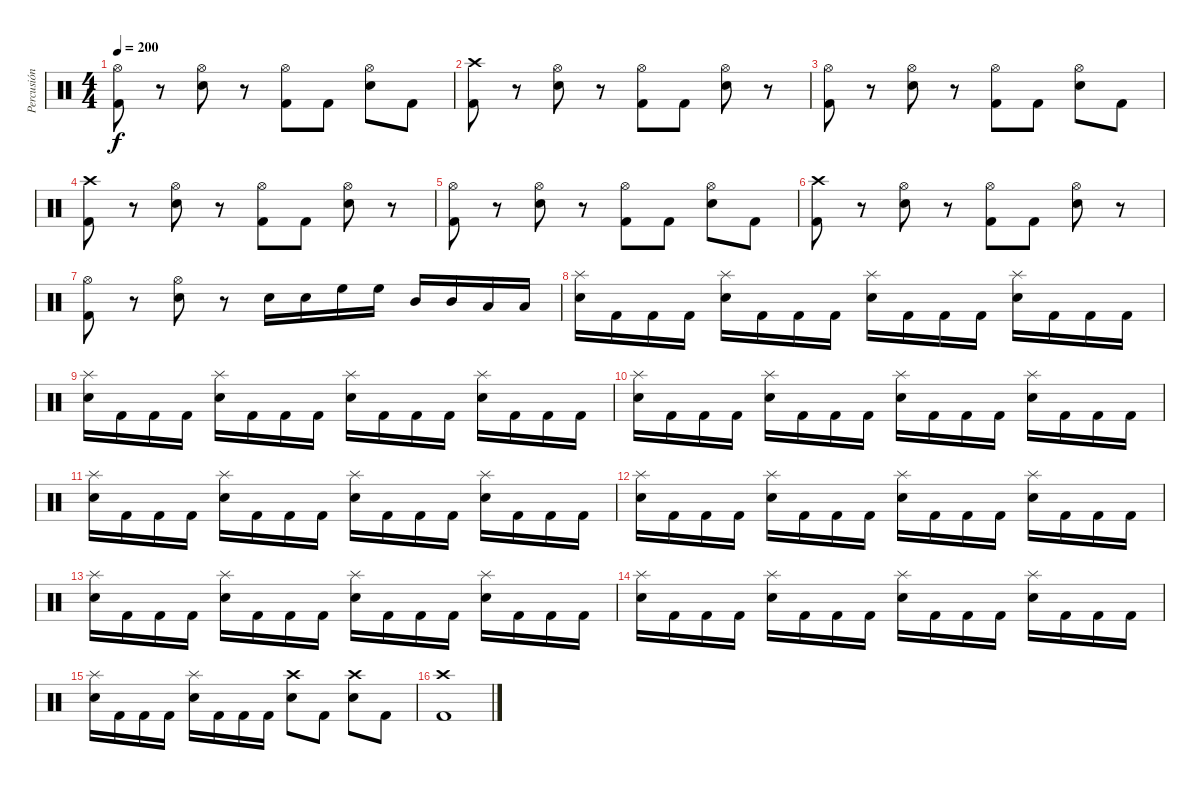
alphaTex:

\track ("Percusión" "Percusión") {instrument percussion}
\staff {score}
\articulation defaults
\ts (4 4)
\tempo 200
\clef neutral
\ks c
("Hi-Hat (open)" "Kick (hit) 2").8{dy f} r.8 ("Hi-Hat (open)" "Electric Snare (hit)").8 r.8 ("Hi-Hat (open)" "Kick (hit) 2").8 "Kick (hit) 2".8 ("Hi-Hat (open)" "Electric Snare (hit)").8 "Kick (hit) 2".8 |
("Crash high (hit)" "Kick (hit) 2").8 r.8 ("Hi-Hat (open)" "Electric Snare (hit)").8 r.8 ("Hi-Hat (open)" "Kick (hit) 2").8 "Kick (hit) 2".8 ("Hi-Hat (open)" "Electric Snare (hit)").8 r.8 |
("Hi-Hat (open)" "Kick (hit) 2").8 r.8 ("Hi-Hat (open)" "Electric Snare (hit)").8 r.8 ("Hi-Hat (open)" "Kick (hit) 2").8 "Kick (hit) 2".8 ("Hi-Hat (open)" "Electric Snare (hit)").8 "Kick (hit) 2".8 |
("Crash high (hit)" "Kick (hit) 2").8 r.8 ("Hi-Hat (open)" "Electric Snare (hit)").8 r.8 ("Hi-Hat (open)" "Kick (hit) 2").8 "Kick (hit) 2".8 ("Hi-Hat (open)" "Electric Snare (hit)").8 r.8 |
("Hi-Hat (open)" "Kick (hit) 2").8 r.8 ("Hi-Hat (open)" "Electric Snare (hit)").8 r.8 ("Hi-Hat (open)" "Kick (hit) 2").8 "Kick (hit) 2".8 ("Hi-Hat (open)" "Electric Snare (hit)").8 "Kick (hit) 2".8 |
("Crash high (hit)" "Kick (hit) 2").8 r.8 ("Hi-Hat (open)" "Electric Snare (hit)").8 r.8 ("Hi-Hat (open)" "Kick (hit) 2").8 "Kick (hit) 2".8 ("Hi-Hat (open)" "Electric Snare (hit)").8 r.8 |
("Hi-Hat (open)" "Kick (hit) 2").8 r.8 ("Hi-Hat (open)" "Electric Snare (hit)").8 r.8 "Electric Snare (hit)".16 "Electric Snare (hit)".16 "High Floor Tom (hit)".16 "High Floor Tom (hit)".16 "Mid Tom (hit)".16 "Mid Tom (hit)".16 "Low Tom (hit)".16 "Low Tom (hit)".16 |
("Splash (hit)" "Electric Snare (hit)").16 "Kick (hit) 2".16 "Kick (hit) 2".16 "Kick (hit) 2".16 ("Splash (hit)" "Electric Snare (hit)").16 "Kick (hit) 2".16 "Kick (hit) 2".16 "Kick (hit) 2".16 ("Splash (hit)" "Electric Snare (hit)").16 "Kick (hit) 2".16 "Kick (hit) 2".16 "Kick (hit) 2".16 ("Splash (hit)" "Electric Snare (hit)").16 "Kick (hit) 2".16 "Kick (hit) 2".16 "Kick (hit) 2".16 |
("Splash (hit)" "Electric Snare (hit)").16 "Kick (hit) 2".16 "Kick (hit) 2".16 "Kick (hit) 2".16 ("Splash (hit)" "Electric Snare (hit)").16 "Kick (hit) 2".16 "Kick (hit) 2".16 "Kick (hit) 2".16 ("Splash (hit)" "Electric Snare (hit)").16 "Kick (hit) 2".16 "Kick (hit) 2".16 "Kick (hit) 2".16 ("Splash (hit)" "Electric Snare (hit)").16 "Kick (hit) 2".16 "Kick (hit) 2".16 "Kick (hit) 2".16 |
("Splash (hit)" "Electric Snare (hit)").16 "Kick (hit) 2".16 "Kick (hit) 2".16 "Kick (hit) 2".16 ("Splash (hit)" "Electric Snare (hit)").16 "Kick (hit) 2".16 "Kick (hit) 2".16 "Kick (hit) 2".16 ("Splash (hit)" "Electric Snare (hit)").16 "Kick (hit) 2".16 "Kick (hit) 2".16 "Kick (hit) 2".16 ("Splash (hit)" "Electric Snare (hit)").16 "Kick (hit) 2".16 "Kick (hit) 2".16 "Kick (hit) 2".16 |
("Splash (hit)" "Electric Snare (hit)").16 "Kick (hit) 2".16 "Kick (hit) 2".16 "Kick (hit) 2".16 ("Splash (hit)" "Electric Snare (hit)").16 "Kick (hit) 2".16 "Kick (hit) 2".16 "Kick (hit) 2".16 ("Splash (hit)" "Electric Snare (hit)").16 "Kick (hit) 2".16 "Kick (hit) 2".16 "Kick (hit) 2".16 ("Splash (hit)" "Electric Snare (hit)").16 "Kick (hit) 2".16 "Kick (hit) 2".16 "Kick (hit) 2".16 |
("Splash (hit)" "Electric Snare (hit)").16 "Kick (hit) 2".16 "Kick (hit) 2".16 "Kick (hit) 2".16 ("Splash (hit)" "Electric Snare (hit)").16 "Kick (hit) 2".16 "Kick (hit) 2".16 "Kick (hit) 2".16 ("Splash (hit)" "Electric Snare (hit)").16 "Kick (hit) 2".16 "Kick (hit) 2".16 "Kick (hit) 2".16 ("Splash (hit)" "Electric Snare (hit)").16 "Kick (hit) 2".16 "Kick (hit) 2".16 "Kick (hit) 2".16 |
("Splash (hit)" "Electric Snare (hit)").16 "Kick (hit) 2".16 "Kick (hit) 2".16 "Kick (hit) 2".16 ("Splash (hit)" "Electric Snare (hit)").16 "Kick (hit) 2".16 "Kick (hit) 2".16 "Kick (hit) 2".16 ("Splash (hit)" "Electric Snare (hit)").16 "Kick (hit) 2".16 "Kick (hit) 2".16 "Kick (hit) 2".16 ("Splash (hit)" "Electric Snare (hit)").16 "Kick (hit) 2".16 "Kick (hit) 2".16 "Kick (hit) 2".16 |
("Splash (hit)" "Electric Snare (hit)").16 "Kick (hit) 2".16 "Kick (hit) 2".16 "Kick (hit) 2".16 ("Splash (hit)" "Electric Snare (hit)").16 "Kick (hit) 2".16 "Kick (hit) 2".16 "Kick (hit) 2".16 ("Splash (hit)" "Electric Snare (hit)").16 "Kick (hit) 2".16 "Kick (hit) 2".16 "Kick (hit) 2".16 ("Splash (hit)" "Electric Snare (hit)").16 "Kick (hit) 2".16 "Kick (hit) 2".16 "Kick (hit) 2".16 |
("Splash (hit)" "Electric Snare (hit)").16 "Kick (hit) 2".16 "Kick (hit) 2".16 "Kick (hit) 2".16 ("Splash (hit)" "Electric Snare (hit)").16 "Kick (hit) 2".16 "Kick (hit) 2".16 "Kick (hit) 2".16 ("Crash high (hit)" "Electric Snare (hit)").8 "Kick (hit) 2".8 ("Crash high (hit)" "Electric Snare (hit)").8 "Kick (hit) 2".8 |
("Crash high (hit)" "Kick (hit) 2").1
